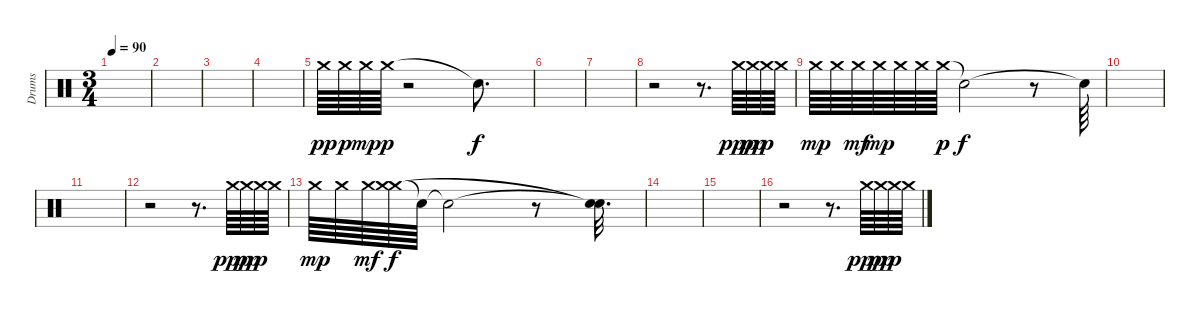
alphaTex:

\track ("Drums" "Drums") {instrument percussion}
\staff {score}
\articulation defaults
\ts (3 4)
\tempo 90
\clef neutral
\ks c
|
|
|
|
"Crash medium (hit)".64{dy pp} "Crash medium (hit)".64{dy p} "Crash medium (hit)".64{dy mp} "Crash medium (hit)".64{dy p} r.2 "Snare (hit)"{t}.8{d dy f} |
|
|
r.2 r.8{d} "Crash medium (hit)".64{dy ppp} "Crash medium (hit)".64{dy pp} "Crash medium (hit)".64{dy p} "Crash medium (hit)".64 |
"Crash medium (hit)".64{dy mp} "Crash medium (hit)".64 "Crash medium (hit)".64{dy mf} "Crash medium (hit)".64{dy mp} "Crash medium (hit)".64 "Crash medium (hit)".64 "Crash medium (hit)".64{dy p} "Snare (hit)"{t}.2{dy f} r.8 "Snare (hit)"{t}.64 |
|
|
r.2 r.8{d} "Crash medium (hit)".64{dy ppp} "Crash medium (hit)".64{dy pp} "Crash medium (hit)".64{dy p} "Crash medium (hit)".64 |
"Crash medium (hit)".64{dy mp} "Crash medium (hit)".64 "Crash medium (hit)".64{dy mf} ("Crash medium (hit)" "Crash medium (hit)").64{dy f} "Snare (hit)"{t}.64 "Snare (hit)"{t}.2 r.8 ("Snare (hit)"{t} "Snare (hit)"{t}).32{d} |
|
|
r.2 r.8{d} "Crash medium (hit)".64{dy ppp} "Crash medium (hit)".64{dy pp} "Crash medium (hit)".64{dy p} "Crash medium (hit)".64
